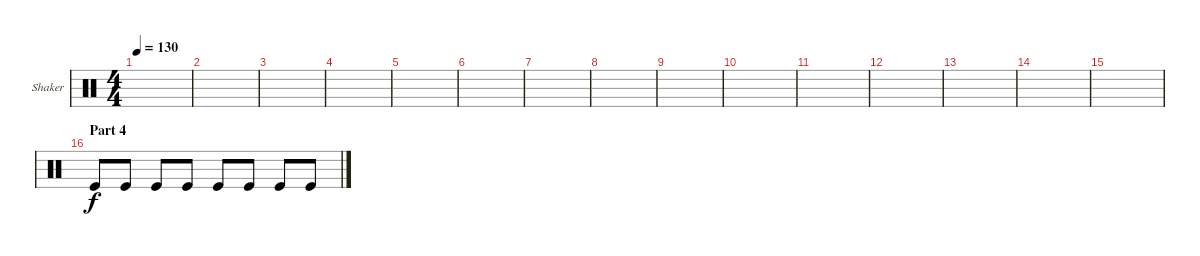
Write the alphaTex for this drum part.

\defaultSystemsLayout 4
\bracketExtendMode groupsimilarinstruments
\firstSystemTrackNameOrientation horizontal
\otherSystemsTrackNameOrientation horizontal
\track ("Shaker" "Shaker") {instrument percussion}
\staff {score}
\articulation defaults
\ts (4 4)
\tempo 130
\clef neutral
\scale
0.333333
\ks aminor
|
\scale
0.333333 |
\scale
0.333333 |
\scale
0.333333 |
\scale
0.333333 |
\scale
0.333333 |
\scale
0.333333 |
\scale
0.333333 |
\scale
0.333333 |
\scale
0.333333 |
\scale
0.333333 |
\scale
0.333333 |
\scale
0.333333 |
\scale
0.333333 |
\scale
0.333333 |
\section ("" "Part 4")
\scale
0.333333 "Kick (hit)".8 "Kick (hit)".8 "Kick (hit)".8 "Kick (hit)".8 "Kick (hit)".8 "Kick (hit)".8 "Kick (hit)".8 "Kick (hit)".8
